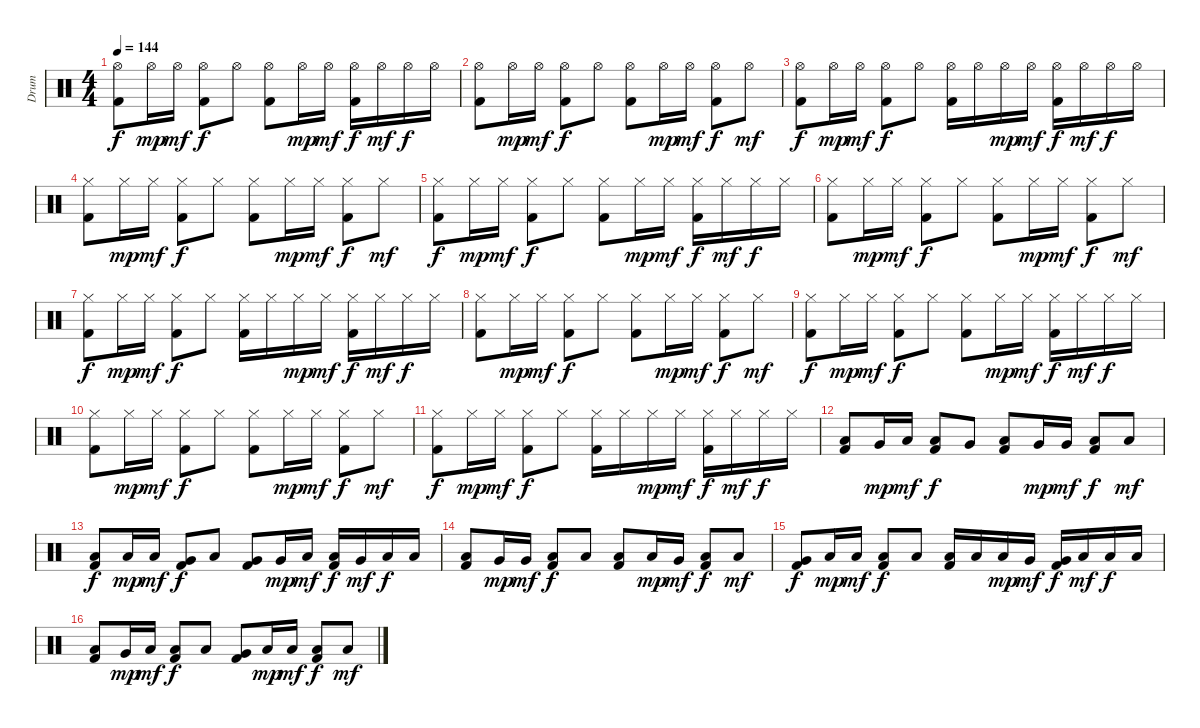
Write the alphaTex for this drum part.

\track ("Drum" "Drum") {instrument percussion}
\staff {score}
\articulation defaults
\ts (4 4)
\tempo 144
\clef neutral
\ks c
("Kick (hit) 2" "Hi-Hat (open)").8{dy f} "Hi-Hat (open)".16{dy mp} "Hi-Hat (open)".16{dy mf} ("Kick (hit) 2" "Hi-Hat (open)").8{dy f} "Hi-Hat (open)".8 ("Kick (hit) 2" "Hi-Hat (open)").8 "Hi-Hat (open)".16{dy mp} "Hi-Hat (open)".16{dy mf} ("Kick (hit) 2" "Hi-Hat (open)").16{dy f} "Hi-Hat (open)".16{dy mf} "Hi-Hat (open)".16{dy f} "Hi-Hat (open)".16 |
("Kick (hit) 2" "Hi-Hat (open)").8 "Hi-Hat (open)".16{dy mp} "Hi-Hat (open)".16{dy mf} ("Kick (hit) 2" "Hi-Hat (open)").8{dy f} "Hi-Hat (open)".8 ("Kick (hit) 2" "Hi-Hat (open)").8 "Hi-Hat (open)".16{dy mp} "Hi-Hat (open)".16{dy mf} ("Kick (hit) 2" "Hi-Hat (open)").8{dy f} "Hi-Hat (open)".8{dy mf} |
("Kick (hit) 2" "Hi-Hat (open)").8{dy f} "Hi-Hat (open)".16{dy mp} "Hi-Hat (open)".16{dy mf} ("Kick (hit) 2" "Hi-Hat (open)").8{dy f} "Hi-Hat (open)".8 ("Kick (hit) 2" "Hi-Hat (open)").16 "Hi-Hat (open)".16 "Hi-Hat (open)".16{dy mp} "Hi-Hat (open)".16{dy mf} ("Kick (hit) 2" "Hi-Hat (open)").16{dy f} "Hi-Hat (open)".16{dy mf} "Hi-Hat (open)".16{dy f} "Hi-Hat (open)".16 |
("Kick (hit) 2" "Hi-Hat (closed)").8 "Hi-Hat (closed)".16{dy mp} "Hi-Hat (closed)".16{dy mf} ("Kick (hit) 2" "Hi-Hat (closed)").8{dy f} "Hi-Hat (closed)".8 ("Kick (hit) 2" "Hi-Hat (closed)").8 "Hi-Hat (closed)".16{dy mp} "Hi-Hat (closed)".16{dy mf} ("Kick (hit) 2" "Hi-Hat (closed)").8{dy f} "Hi-Hat (closed)".8{dy mf} |
("Kick (hit) 2" "Hi-Hat (closed)").8{dy f} "Hi-Hat (closed)".16{dy mp} "Hi-Hat (closed)".16{dy mf} ("Kick (hit) 2" "Hi-Hat (closed)").8{dy f} "Hi-Hat (closed)".8 ("Kick (hit) 2" "Hi-Hat (closed)").8 "Hi-Hat (closed)".16{dy mp} "Hi-Hat (closed)".16{dy mf} ("Kick (hit) 2" "Hi-Hat (closed)").16{dy f} "Hi-Hat (closed)".16{dy mf} "Hi-Hat (closed)".16{dy f} "Hi-Hat (closed)".16 |
("Kick (hit) 2" "Hi-Hat (closed)").8 "Hi-Hat (closed)".16{dy mp} "Hi-Hat (closed)".16{dy mf} ("Kick (hit) 2" "Hi-Hat (closed)").8{dy f} "Hi-Hat (closed)".8 ("Kick (hit) 2" "Hi-Hat (closed)").8 "Hi-Hat (closed)".16{dy mp} "Hi-Hat (closed)".16{dy mf} ("Kick (hit) 2" "Hi-Hat (closed)").8{dy f} "Hi-Hat (closed)".8{dy mf} |
("Kick (hit) 2" "Hi-Hat (closed)").8{dy f} "Hi-Hat (closed)".16{dy mp} "Hi-Hat (closed)".16{dy mf} ("Kick (hit) 2" "Hi-Hat (closed)").8{dy f} "Hi-Hat (closed)".8 ("Kick (hit) 2" "Hi-Hat (closed)").16 "Hi-Hat (closed)".16 "Hi-Hat (closed)".16{dy mp} "Hi-Hat (closed)".16{dy mf} ("Kick (hit) 2" "Hi-Hat (closed)").16{dy f} "Hi-Hat (closed)".16{dy mf} "Hi-Hat (closed)".16{dy f} "Hi-Hat (closed)".16 |
("Kick (hit) 2" "Hi-Hat (closed)").8 "Hi-Hat (closed)".16{dy mp} "Hi-Hat (closed)".16{dy mf} ("Kick (hit) 2" "Hi-Hat (closed)").8{dy f} "Hi-Hat (closed)".8 ("Kick (hit) 2" "Hi-Hat (closed)").8 "Hi-Hat (closed)".16{dy mp} "Hi-Hat (closed)".16{dy mf} ("Kick (hit) 2" "Hi-Hat (closed)").8{dy f} "Hi-Hat (closed)".8{dy mf} |
("Kick (hit) 2" "Hi-Hat (closed)").8{dy f} "Hi-Hat (closed)".16{dy mp} "Hi-Hat (closed)".16{dy mf} ("Kick (hit) 2" "Hi-Hat (closed)").8{dy f} "Hi-Hat (closed)".8 ("Kick (hit) 2" "Hi-Hat (closed)").8 "Hi-Hat (closed)".16{dy mp} "Hi-Hat (closed)".16{dy mf} ("Kick (hit) 2" "Hi-Hat (closed)").16{dy f} "Hi-Hat (closed)".16{dy mf} "Hi-Hat (closed)".16{dy f} "Hi-Hat (closed)".16 |
("Kick (hit) 2" "Hi-Hat (closed)").8 "Hi-Hat (closed)".16{dy mp} "Hi-Hat (closed)".16{dy mf} ("Kick (hit) 2" "Hi-Hat (closed)").8{dy f} "Hi-Hat (closed)".8 ("Kick (hit) 2" "Hi-Hat (closed)").8 "Hi-Hat (closed)".16{dy mp} "Hi-Hat (closed)".16{dy mf} ("Kick (hit) 2" "Hi-Hat (closed)").8{dy f} "Hi-Hat (closed)".8{dy mf} |
("Kick (hit) 2" "Hi-Hat (closed)").8{dy f} "Hi-Hat (closed)".16{dy mp} "Hi-Hat (closed)".16{dy mf} ("Kick (hit) 2" "Hi-Hat (closed)").8{dy f} "Hi-Hat (closed)".8 ("Kick (hit) 2" "Hi-Hat (closed)").16 "Hi-Hat (closed)".16 "Hi-Hat (closed)".16{dy mp} "Hi-Hat (closed)".16{dy mf} ("Kick (hit) 2" "Hi-Hat (closed)").16{dy f} "Hi-Hat (closed)".16{dy mf} "Hi-Hat (closed)".16{dy f} "Hi-Hat (closed)".16 |
("Kick (hit) 2" "Low Floor Tom (hit)").8 "Very Low Tom (hit)".16{dy mp} "Low Floor Tom (hit)".16{dy mf} ("Kick (hit) 2" "Low Floor Tom (hit)").8{dy f} "Very Low Tom (hit)".8 ("Kick (hit) 2" "Low Floor Tom (hit)").8 "Very Low Tom (hit)".16{dy mp} "Very Low Tom (hit)".16{dy mf} ("Kick (hit) 2" "Low Floor Tom (hit)").8{dy f} "Low Floor Tom (hit)".8{dy mf} |
("Kick (hit) 2" "Low Floor Tom (hit)").8{dy f} "Low Floor Tom (hit)".16{dy mp} "Low Floor Tom (hit)".16{dy mf} ("Kick (hit) 2" "Very Low Tom (hit)").8{dy f} "Low Floor Tom (hit)".8 ("Kick (hit) 2" "Very Low Tom (hit)").8 "Very Low Tom (hit)".16{dy mp} "Low Floor Tom (hit)".16{dy mf} ("Kick (hit) 2" "Low Floor Tom (hit)").16{dy f} "Very Low Tom (hit)".16{dy mf} "Low Floor Tom (hit)".16{dy f} "Low Floor Tom (hit)".16 |
("Kick (hit) 2" "Low Floor Tom (hit)").8 "Very Low Tom (hit)".16{dy mp} "Very Low Tom (hit)".16{dy mf} ("Kick (hit) 2" "Low Floor Tom (hit)").8{dy f} "Low Floor Tom (hit)".8 ("Kick (hit) 2" "Low Floor Tom (hit)").8 "Low Floor Tom (hit)".16{dy mp} "Very Low Tom (hit)".16{dy mf} ("Kick (hit) 2" "Low Floor Tom (hit)").8{dy f} "Low Floor Tom (hit)".8{dy mf} |
("Kick (hit) 2" "Very Low Tom (hit)").8{dy f} "Low Floor Tom (hit)".16{dy mp} "Low Floor Tom (hit)".16{dy mf} ("Kick (hit) 2" "Low Floor Tom (hit)").8{dy f} "Low Floor Tom (hit)".8 ("Kick (hit) 2" "Low Floor Tom (hit)").16 "Low Floor Tom (hit)".16 "Low Floor Tom (hit)".16{dy mp} "Very Low Tom (hit)".16{dy mf} ("Kick (hit) 2" "Very Low Tom (hit)").16{dy f} "Low Floor Tom (hit)".16{dy mf} "Low Floor Tom (hit)".16{dy f} "Low Floor Tom (hit)".16 |
("Kick (hit) 2" "Low Floor Tom (hit)").8 "Very Low Tom (hit)".16{dy mp} "Low Floor Tom (hit)".16{dy mf} ("Kick (hit) 2" "Low Floor Tom (hit)").8{dy f} "Low Floor Tom (hit)".8 ("Kick (hit) 2" "Very Low Tom (hit)").8 "Low Floor Tom (hit)".16{dy mp} "Low Floor Tom (hit)".16{dy mf} ("Kick (hit) 2" "Low Floor Tom (hit)").8{dy f} "Low Floor Tom (hit)".8{dy mf}
